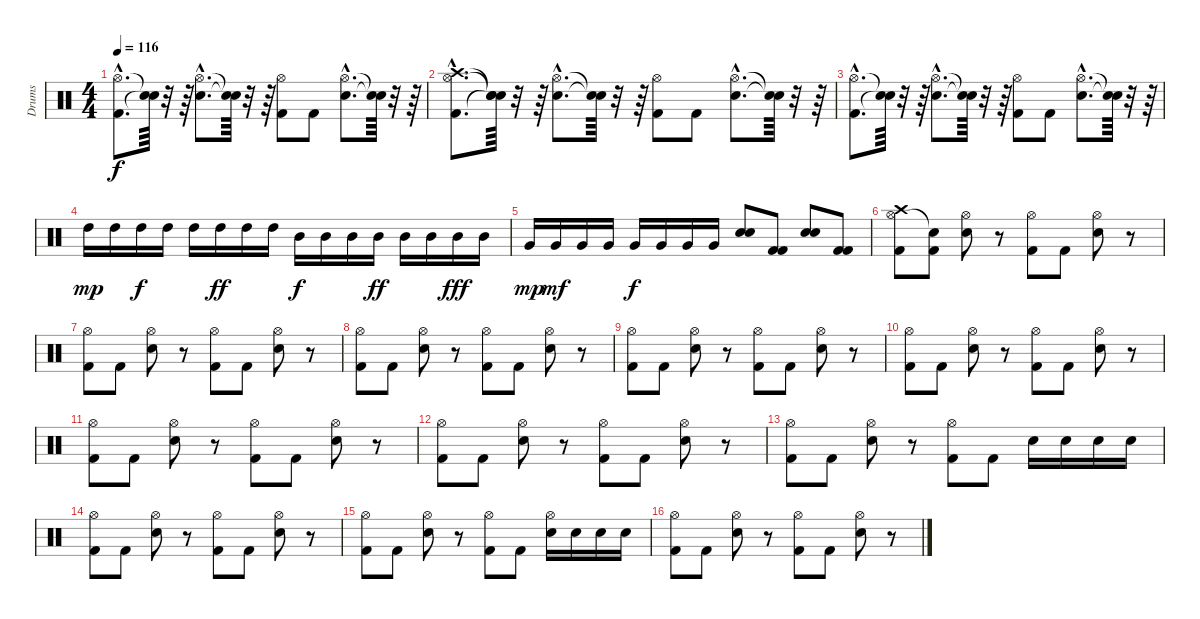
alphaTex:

\track ("Drums" "Drums") {instrument percussion}
\staff {score}
\articulation defaults
\ts (4 4)
\tempo 116
\clef neutral
\ks c
("Kick (hit) 2"{hac} "Hi-Hat (open)"{hac}).8{d dy f} ("Snare (hit)"{t} "Snare (hit)"{t}).64 r.32 r.64 ("Snare (hit) 2"{hac} "Hi-Hat (open)"{hac}).8{d} ("Snare (hit)"{t} "Snare (hit)"{t}).64 r.32 r.64 ("Kick (hit) 2" "Hi-Hat (open)").8 "Kick (hit) 2".8 ("Snare (hit) 2"{hac} "Hi-Hat (open)"{hac}).8{d} ("Snare (hit)"{t} "Snare (hit)"{t}).64 r.32 r.64 |
("Kick (hit) 2"{hac} "Hi-Hat (open)"{hac} "Crash high (hit)"{hac}).8{d} ("Snare (hit)"{t} "Snare (hit)"{t} "Snare (hit)"{t}).64 r.32 r.64 ("Snare (hit) 2"{hac} "Hi-Hat (open)"{hac}).8{d} ("Snare (hit)"{t} "Snare (hit)"{t}).64 r.32 r.64 ("Kick (hit) 2" "Hi-Hat (open)").8 "Kick (hit) 2".8 ("Snare (hit) 2"{hac} "Hi-Hat (open)"{hac}).8{d} ("Snare (hit)"{t} "Snare (hit)"{t}).64 r.32 r.64 |
("Kick (hit) 2"{hac} "Hi-Hat (open)"{hac}).8{d} ("Snare (hit)"{t} "Snare (hit)"{t}).64 r.32 r.64 ("Snare (hit) 2"{hac} "Hi-Hat (open)"{hac}).8{d} ("Snare (hit)"{t} "Snare (hit)"{t}).64 r.32 r.64 ("Kick (hit) 2" "Hi-Hat (open)").8 "Kick (hit) 2".8 ("Snare (hit) 2"{hac} "Hi-Hat (open)"{hac}).8{d} ("Snare (hit)"{t} "Snare (hit)"{t}).64 r.32 r.64 |
"High Tom (hit)".16{dy mp} "High Tom (hit)".16 "High Tom (hit)".16{dy f} "High Tom (hit)".16 "High Tom (hit)".16 "High Tom (hit)".16{dy ff} "High Tom (hit)".16 "High Tom (hit)".16 "Mid Tom (hit)".16{dy f} "Mid Tom (hit)".16 "Mid Tom (hit)".16 "Mid Tom (hit)".16{dy ff} "Mid Tom (hit)".16 "Mid Tom (hit)".16 "Mid Tom (hit)".16{dy fff} "Mid Tom (hit)".16 |
"Very Low Tom (hit)".16{dy mp} "Very Low Tom (hit)".16{dy mf} "Very Low Tom (hit)".16 "Very Low Tom (hit)".16 "Very Low Tom (hit)".16{dy f} "Very Low Tom (hit)".16 "Very Low Tom (hit)".16 "Very Low Tom (hit)".16 ("Snare (hit) 2" "Snare (hit) 2").8 ("Kick (hit) 2" "Kick (hit) 2").8 ("Snare (hit) 2" "Snare (hit) 2").8 ("Kick (hit) 2" "Kick (hit) 2").8 |
("Kick (hit) 2" "Hi-Hat (open)" "Crash high (hit)").8 ("Kick (hit) 2" "Snare (hit)"{t}).8 ("Snare (hit) 2" "Hi-Hat (open)").8 r.8 ("Kick (hit) 2" "Hi-Hat (open)").8 "Kick (hit) 2".8 ("Snare (hit) 2" "Hi-Hat (open)").8 r.8 |
("Kick (hit) 2" "Hi-Hat (open)").8 "Kick (hit) 2".8 ("Snare (hit) 2" "Hi-Hat (open)").8 r.8 ("Kick (hit) 2" "Hi-Hat (open)").8 "Kick (hit) 2".8 ("Snare (hit) 2" "Hi-Hat (open)").8 r.8 |
("Kick (hit) 2" "Hi-Hat (open)").8 "Kick (hit) 2".8 ("Snare (hit) 2" "Hi-Hat (open)").8 r.8 ("Kick (hit) 2" "Hi-Hat (open)").8 "Kick (hit) 2".8 ("Snare (hit) 2" "Hi-Hat (open)").8 r.8 |
("Kick (hit) 2" "Hi-Hat (open)").8 "Kick (hit) 2".8 ("Snare (hit) 2" "Hi-Hat (open)").8 r.8 ("Kick (hit) 2" "Hi-Hat (open)").8 "Kick (hit) 2".8 ("Snare (hit) 2" "Hi-Hat (open)").8 r.8 |
("Kick (hit) 2" "Hi-Hat (open)").8 "Kick (hit) 2".8 ("Snare (hit) 2" "Hi-Hat (open)").8 r.8 ("Kick (hit) 2" "Hi-Hat (open)").8 "Kick (hit) 2".8 ("Snare (hit) 2" "Hi-Hat (open)").8 r.8 |
("Kick (hit) 2" "Hi-Hat (open)").8 "Kick (hit) 2".8 ("Snare (hit) 2" "Hi-Hat (open)").8 r.8 ("Kick (hit) 2" "Hi-Hat (open)").8 "Kick (hit) 2".8 ("Snare (hit) 2" "Hi-Hat (open)").8 r.8 |
("Kick (hit) 2" "Hi-Hat (open)").8 "Kick (hit) 2".8 ("Snare (hit) 2" "Hi-Hat (open)").8 r.8 ("Kick (hit) 2" "Hi-Hat (open)").8 "Kick (hit) 2".8 ("Snare (hit) 2" "Hi-Hat (open)").8 r.8 |
("Kick (hit) 2" "Hi-Hat (open)").8 "Kick (hit) 2".8 ("Snare (hit) 2" "Hi-Hat (open)").8 r.8 ("Kick (hit) 2" "Hi-Hat (open)").8 "Kick (hit) 2".8 "Snare (hit) 2".16 "Snare (hit) 2".16 "Snare (hit) 2".16 "Snare (hit) 2".16 |
("Kick (hit) 2" "Hi-Hat (open)").8 "Kick (hit) 2".8 ("Snare (hit) 2" "Hi-Hat (open)").8 r.8 ("Kick (hit) 2" "Hi-Hat (open)").8 "Kick (hit) 2".8 ("Snare (hit) 2" "Hi-Hat (open)").8 r.8 |
("Kick (hit) 2" "Hi-Hat (open)").8 "Kick (hit) 2".8 ("Snare (hit) 2" "Hi-Hat (open)").8 r.8 ("Kick (hit) 2" "Hi-Hat (open)").8 "Kick (hit) 2".8 ("Snare (hit) 2" "Hi-Hat (open)").16 "Snare (hit) 2".16 "Snare (hit) 2".16 "Snare (hit) 2".16 |
("Kick (hit) 2" "Hi-Hat (open)").8 "Kick (hit) 2".8 ("Snare (hit) 2" "Hi-Hat (open)").8 r.8 ("Kick (hit) 2" "Hi-Hat (open)").8 "Kick (hit) 2".8 ("Snare (hit) 2" "Hi-Hat (open)").8 r.8
